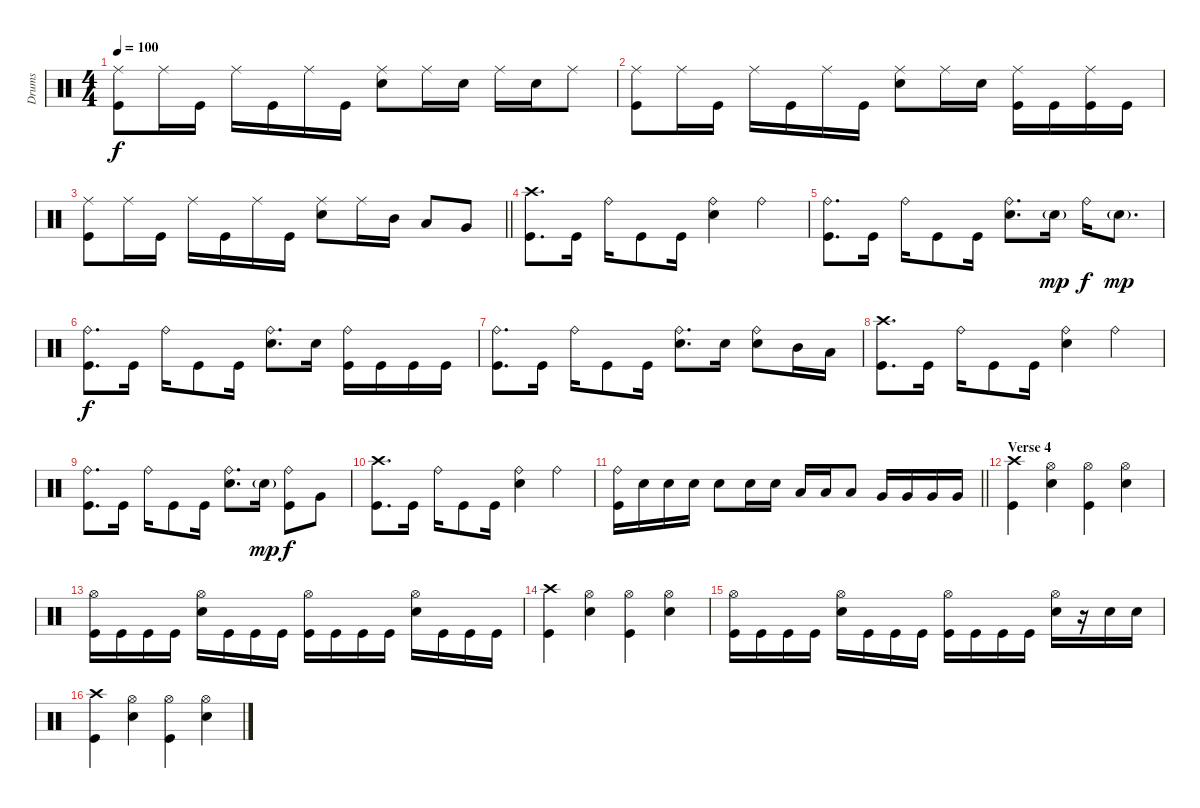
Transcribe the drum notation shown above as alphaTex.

\track ("Drums" "Drums") {instrument percussion}
\staff {score}
\articulation defaults
\ts (4 4)
\tempo 100
\clef neutral
\ks c
("Ride (middle)" "Kick (hit)").8{dy f} "Ride (middle)".16 "Kick (hit)".16 "Ride (middle)".16 "Kick (hit)".16 "Ride (middle)".16 "Kick (hit)".16 ("Ride (middle)" "Electric Snare (hit)").8 "Ride (middle)".16 "Electric Snare (hit)".16 "Ride (middle)".16 "Electric Snare (hit)".16 "Ride (middle)".8 |
("Ride (middle)" "Kick (hit)").8 "Ride (middle)".16 "Kick (hit)".16 "Ride (middle)".16 "Kick (hit)".16 "Ride (middle)".16 "Kick (hit)".16 ("Ride (middle)" "Electric Snare (hit)").8 "Ride (middle)".16 "Electric Snare (hit)".16 ("Ride (middle)" "Kick (hit)").16 "Kick (hit)".16 ("Ride (middle)" "Kick (hit)").16 "Kick (hit)".16 |
\barLineRight lightlight
("Ride (middle)" "Kick (hit)").8 "Ride (middle)".16 "Kick (hit)".16 "Ride (middle)".16 "Kick (hit)".16 "Ride (middle)".16 "Kick (hit)".16 ("Ride (middle)" "Electric Snare (hit)").8 "Ride (middle)".16 "Mid Tom (hit)".16 "Low Tom (hit)".8 "Very Low Tom (hit)".8 |
\section ("" "")
("Crash high (hit)" "Kick (hit)").8{d} "Kick (hit)".16 "Ride (bell)".16 "Kick (hit)".8 "Kick (hit)".16 ("Ride (bell)" "Electric Snare (hit)").4 "Ride (bell)".4 |
("Ride (bell)" "Kick (hit)").8{d} "Kick (hit)".16 "Ride (bell)".16 "Kick (hit)".8 "Kick (hit)".16 ("Ride (bell)" "Electric Snare (hit)").8{d} "Electric Snare (hit)"{g}.16{dy mp} "Ride (bell)".16{dy f} "Electric Snare (hit)"{g}.8{d dy mp} |
("Ride (bell)" "Kick (hit)").8{d dy f} "Kick (hit)".16 "Ride (bell)".16 "Kick (hit)".8 "Kick (hit)".16 ("Ride (bell)" "Electric Snare (hit)").8{d} "Electric Snare (hit)".16 ("Ride (bell)" "Kick (hit)").16 "Kick (hit)".16 "Kick (hit)".16 "Kick (hit)".16 |
("Ride (bell)" "Kick (hit)").8{d} "Kick (hit)".16 "Ride (bell)".16 "Kick (hit)".8 "Kick (hit)".16 ("Ride (bell)" "Electric Snare (hit)").8{d} "Electric Snare (hit)".16 ("Ride (bell)" "Electric Snare (hit)").8 "Mid Tom (hit)".16 "Low Tom (hit)".16 |
("Crash high (hit)" "Kick (hit)").8{d} "Kick (hit)".16 "Ride (bell)".16 "Kick (hit)".8 "Kick (hit)".16 ("Ride (bell)" "Electric Snare (hit)").4 "Ride (bell)".4 |
("Ride (bell)" "Kick (hit)").8{d} "Kick (hit)".16 "Ride (bell)".16 "Kick (hit)".8 "Kick (hit)".16 ("Ride (bell)" "Electric Snare (hit)").8{d} "Electric Snare (hit)"{g}.16{dy mp} ("Ride (bell)" "Kick (hit)").8{dy f} "Very Low Tom (hit)".8 |
("Crash high (hit)" "Kick (hit)").8{d} "Kick (hit)".16 "Ride (bell)".16 "Kick (hit)".8 "Kick (hit)".16 ("Ride (bell)" "Electric Snare (hit)").4 "Ride (bell)".4 |
\barLineRight lightlight
("Ride (bell)" "Kick (hit)").16 "Electric Snare (hit)".16 "Electric Snare (hit)".16 "Electric Snare (hit)".16 "Electric Snare (hit)".8 "Electric Snare (hit)".16 "Electric Snare (hit)".16 "Low Tom (hit)".16 "Low Tom (hit)".16 "Low Tom (hit)".8 "Very Low Tom (hit)".16 "Very Low Tom (hit)".16 "Very Low Tom (hit)".16 "Very Low Tom (hit)".16 |
\section ("" "Verse 4")
("Crash high (hit)" "Kick (hit)").4 ("Hi-Hat (open)" "Electric Snare (hit)").4 ("Hi-Hat (open)" "Kick (hit)").4 ("Hi-Hat (open)" "Electric Snare (hit)").4 |
("Hi-Hat (open)" "Kick (hit)").16 "Kick (hit)".16 "Kick (hit)".16 "Kick (hit)".16 ("Hi-Hat (open)" "Electric Snare (hit)").16 "Kick (hit)".16 "Kick (hit)".16 "Kick (hit)".16 ("Hi-Hat (open)" "Kick (hit)").16 "Kick (hit)".16 "Kick (hit)".16 "Kick (hit)".16 ("Hi-Hat (open)" "Electric Snare (hit)").16 "Kick (hit)".16 "Kick (hit)".16 "Kick (hit)".16 |
("Crash high (hit)" "Kick (hit)").4 ("Hi-Hat (open)" "Electric Snare (hit)").4 ("Hi-Hat (open)" "Kick (hit)").4 ("Hi-Hat (open)" "Electric Snare (hit)").4 |
("Hi-Hat (open)" "Kick (hit)").16 "Kick (hit)".16 "Kick (hit)".16 "Kick (hit)".16 ("Hi-Hat (open)" "Electric Snare (hit)").16 "Kick (hit)".16 "Kick (hit)".16 "Kick (hit)".16 ("Hi-Hat (open)" "Kick (hit)").16 "Kick (hit)".16 "Kick (hit)".16 "Kick (hit)".16 ("Hi-Hat (open)" "Electric Snare (hit)").16 r.16 "Electric Snare (hit)".16 "Electric Snare (hit)".16 |
("Crash high (hit)" "Kick (hit)").4 ("Hi-Hat (open)" "Electric Snare (hit)").4 ("Hi-Hat (open)" "Kick (hit)").4 ("Hi-Hat (open)" "Electric Snare (hit)").4
